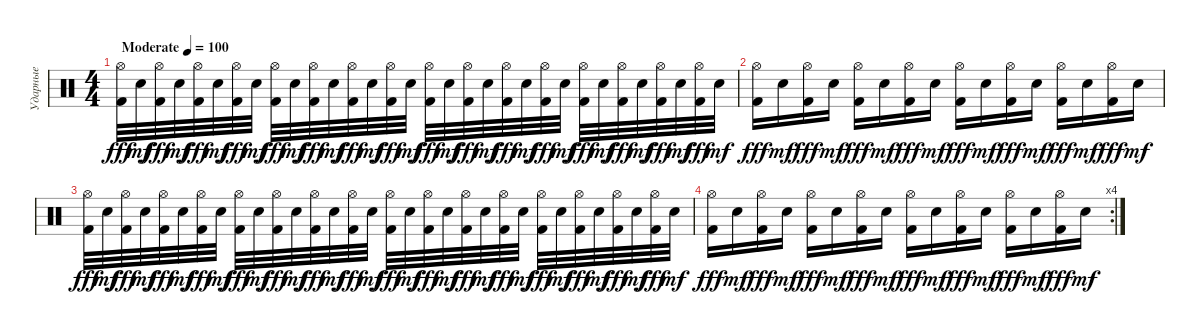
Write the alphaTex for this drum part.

\track ("Ударные" "Ударные") {instrument percussion}
\staff {score}
\articulation defaults
\ts (4 4)
\tempo (100 "Moderate")
\clef neutral
\ks c
("Hi-Hat (open)" "Kick (hit) 2").32{dy fff} "Electric Snare (hit)".32{dy mf} ("Hi-Hat (open)" "Kick (hit) 2").32{dy fff} "Electric Snare (hit)".32{dy mf} ("Hi-Hat (open)" "Kick (hit) 2").32{dy fff} "Electric Snare (hit)".32{dy mf} ("Hi-Hat (open)" "Kick (hit) 2").32{dy fff} "Electric Snare (hit)".32{dy mf} ("Hi-Hat (open)" "Kick (hit) 2").32{dy fff} "Electric Snare (hit)".32{dy mf} ("Hi-Hat (open)" "Kick (hit) 2").32{dy fff} "Electric Snare (hit)".32{dy mf} ("Hi-Hat (open)" "Kick (hit) 2").32{dy fff} "Electric Snare (hit)".32{dy mf} ("Hi-Hat (open)" "Kick (hit) 2").32{dy fff} "Electric Snare (hit)".32{dy mf} ("Hi-Hat (open)" "Kick (hit) 2").32{dy fff} "Electric Snare (hit)".32{dy mf} ("Hi-Hat (open)" "Kick (hit) 2").32{dy fff} "Electric Snare (hit)".32{dy mf} ("Hi-Hat (open)" "Kick (hit) 2").32{dy fff} "Electric Snare (hit)".32{dy mf} ("Hi-Hat (open)" "Kick (hit) 2").32{dy fff} "Electric Snare (hit)".32{dy mf} ("Hi-Hat (open)" "Kick (hit) 2").32{dy fff} "Electric Snare (hit)".32{dy mf} ("Hi-Hat (open)" "Kick (hit) 2").32{dy fff} "Electric Snare (hit)".32{dy mf} ("Hi-Hat (open)" "Kick (hit) 2").32{dy fff} "Electric Snare (hit)".32{dy mf} ("Hi-Hat (open)" "Kick (hit) 2").32{dy fff} "Electric Snare (hit)".32{dy mf} |
("Hi-Hat (open)" "Kick (hit) 2").16{dy fff} "Electric Snare (hit)".16{dy mf} ("Hi-Hat (open)" "Kick (hit) 2").16{dy fff} "Electric Snare (hit)".16{dy mf} ("Hi-Hat (open)" "Kick (hit) 2").16{dy fff} "Electric Snare (hit)".16{dy mf} ("Hi-Hat (open)" "Kick (hit) 2").16{dy fff} "Electric Snare (hit)".16{dy mf} ("Hi-Hat (open)" "Kick (hit) 2").16{dy fff} "Electric Snare (hit)".16{dy mf} ("Hi-Hat (open)" "Kick (hit) 2").16{dy fff} "Electric Snare (hit)".16{dy mf} ("Hi-Hat (open)" "Kick (hit) 2").16{dy fff} "Electric Snare (hit)".16{dy mf} ("Hi-Hat (open)" "Kick (hit) 2").16{dy fff} "Electric Snare (hit)".16{dy mf} |
("Hi-Hat (open)" "Kick (hit) 2").32{dy fff} "Electric Snare (hit)".32{dy mf} ("Hi-Hat (open)" "Kick (hit) 2").32{dy fff} "Electric Snare (hit)".32{dy mf} ("Hi-Hat (open)" "Kick (hit) 2").32{dy fff} "Electric Snare (hit)".32{dy mf} ("Hi-Hat (open)" "Kick (hit) 2").32{dy fff} "Electric Snare (hit)".32{dy mf} ("Hi-Hat (open)" "Kick (hit) 2").32{dy fff} "Electric Snare (hit)".32{dy mf} ("Hi-Hat (open)" "Kick (hit) 2").32{dy fff} "Electric Snare (hit)".32{dy mf} ("Hi-Hat (open)" "Kick (hit) 2").32{dy fff} "Electric Snare (hit)".32{dy mf} ("Hi-Hat (open)" "Kick (hit) 2").32{dy fff} "Electric Snare (hit)".32{dy mf} ("Hi-Hat (open)" "Kick (hit) 2").32{dy fff} "Electric Snare (hit)".32{dy mf} ("Hi-Hat (open)" "Kick (hit) 2").32{dy fff} "Electric Snare (hit)".32{dy mf} ("Hi-Hat (open)" "Kick (hit) 2").32{dy fff} "Electric Snare (hit)".32{dy mf} ("Hi-Hat (open)" "Kick (hit) 2").32{dy fff} "Electric Snare (hit)".32{dy mf} ("Hi-Hat (open)" "Kick (hit) 2").32{dy fff} "Electric Snare (hit)".32{dy mf} ("Hi-Hat (open)" "Kick (hit) 2").32{dy fff} "Electric Snare (hit)".32{dy mf} ("Hi-Hat (open)" "Kick (hit) 2").32{dy fff} "Electric Snare (hit)".32{dy mf} ("Hi-Hat (open)" "Kick (hit) 2").32{dy fff} "Electric Snare (hit)".32{dy mf} |
\rc 4
("Hi-Hat (open)" "Kick (hit) 2").16{dy fff} "Electric Snare (hit)".16{dy mf} ("Hi-Hat (open)" "Kick (hit) 2").16{dy fff} "Electric Snare (hit)".16{dy mf} ("Hi-Hat (open)" "Kick (hit) 2").16{dy fff} "Electric Snare (hit)".16{dy mf} ("Hi-Hat (open)" "Kick (hit) 2").16{dy fff} "Electric Snare (hit)".16{dy mf} ("Hi-Hat (open)" "Kick (hit) 2").16{dy fff} "Electric Snare (hit)".16{dy mf} ("Hi-Hat (open)" "Kick (hit) 2").16{dy fff} "Electric Snare (hit)".16{dy mf} ("Hi-Hat (open)" "Kick (hit) 2").16{dy fff} "Electric Snare (hit)".16{dy mf} ("Hi-Hat (open)" "Kick (hit) 2").16{dy fff} "Electric Snare (hit)".16{dy mf}
